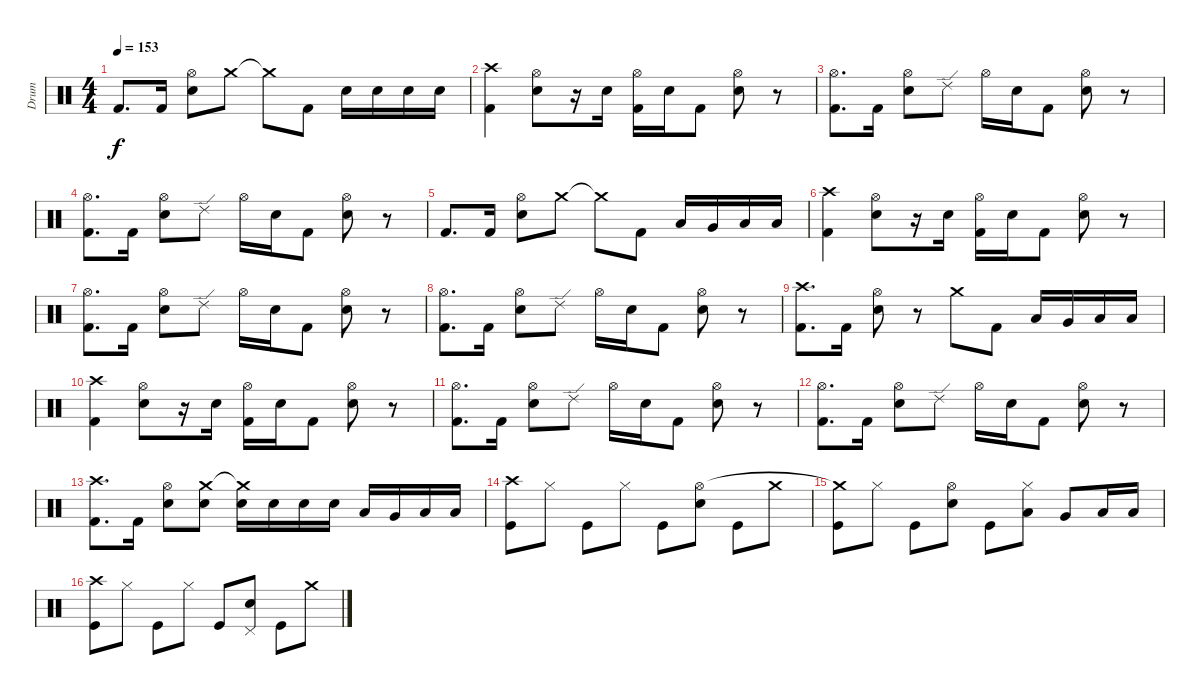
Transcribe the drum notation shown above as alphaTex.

\track ("Drum" "Drum") {instrument percussion}
\staff {score}
\articulation defaults
\ts (4 4)
\tempo 153
\clef neutral
\ks c "Kick (hit) 2".8{d dy f} "Kick (hit) 2".16
("Hi-Hat (open)" "Snare (hit) 2").8 "Crash medium (hit)".8 "Crash medium (hit)"{t}.8 "Kick (hit) 2".8 "Electric Snare (hit)".16 "Electric Snare (hit)".16 "Electric Snare (hit)".16 "Electric Snare (hit)".16 |
("Crash high (hit)" "Kick (hit) 2").4 ("Hi-Hat (open)" "Snare (hit) 2").8 r.16 "Snare (hit) 2".16 ("Hi-Hat (open)" "Kick (hit) 2").16 "Snare (hit) 2".16 "Kick (hit) 2".8 ("Hi-Hat (open)" "Snare (hit) 2").8 r.8 |
("Hi-Hat (open)" "Kick (hit) 2").8{d} "Kick (hit) 2".16 ("Hi-Hat (open)" "Snare (hit) 2").8 "Ride (edge) 2".8 "Hi-Hat (open)".16 "Electric Snare (hit)".16 "Kick (hit) 2".8 ("Hi-Hat (open)" "Snare (hit) 2").8 r.8 |
("Hi-Hat (open)" "Kick (hit) 2").8{d} "Kick (hit) 2".16 ("Hi-Hat (open)" "Snare (hit) 2").8 "Ride (edge) 2".8 "Hi-Hat (open)".16 "Electric Snare (hit)".16 "Kick (hit) 2".8 ("Hi-Hat (open)" "Snare (hit) 2").8 r.8 |
"Kick (hit) 2".8{d} "Kick (hit) 2".16 ("Hi-Hat (open)" "Snare (hit) 2").8 "Crash medium (hit)".8 "Crash medium (hit)"{t}.8 "Kick (hit) 2".8 "Low Tom (hit)".16 "Very Low Tom (hit)".16 "Low Floor Tom (hit)".16 "Low Floor Tom (hit)".16 |
("Crash high (hit)" "Kick (hit) 2").4 ("Hi-Hat (open)" "Snare (hit) 2").8 r.16 "Snare (hit) 2".16 ("Hi-Hat (open)" "Kick (hit) 2").16 "Snare (hit) 2".16 "Kick (hit) 2".8 ("Hi-Hat (open)" "Snare (hit) 2").8 r.8 |
("Hi-Hat (open)" "Kick (hit) 2").8{d} "Kick (hit) 2".16 ("Hi-Hat (open)" "Snare (hit) 2").8 "Ride (edge) 2".8 "Hi-Hat (open)".16 "Electric Snare (hit)".16 "Kick (hit) 2".8 ("Hi-Hat (open)" "Snare (hit) 2").8 r.8 |
("Hi-Hat (open)" "Kick (hit) 2").8{d} "Kick (hit) 2".16 ("Hi-Hat (open)" "Snare (hit) 2").8 "Ride (edge) 2".8 "Hi-Hat (open)".16 "Electric Snare (hit)".16 "Kick (hit) 2".8 ("Hi-Hat (open)" "Snare (hit) 2").8 r.8 |
("Crash high (hit)" "Kick (hit) 2").8{d} "Kick (hit) 2".16 ("Hi-Hat (open)" "Snare (hit) 2").8 r.8 "Crash medium (hit)".8 "Kick (hit) 2".8 "Low Tom (hit)".16 "Very Low Tom (hit)".16 "Low Floor Tom (hit)".16 "Low Floor Tom (hit)".16 |
("Crash high (hit)" "Kick (hit) 2").4 ("Hi-Hat (open)" "Snare (hit) 2").8 r.16 "Snare (hit) 2".16 ("Hi-Hat (open)" "Kick (hit) 2").16 "Snare (hit) 2".16 "Kick (hit) 2".8 ("Hi-Hat (open)" "Snare (hit) 2").8 r.8 |
("Hi-Hat (open)" "Kick (hit) 2").8{d} "Kick (hit) 2".16 ("Hi-Hat (open)" "Snare (hit) 2").8 "Ride (edge) 2".8 "Hi-Hat (open)".16 "Electric Snare (hit)".16 "Kick (hit) 2".8 ("Hi-Hat (open)" "Snare (hit) 2").8 r.8 |
("Hi-Hat (open)" "Kick (hit) 2").8{d} "Kick (hit) 2".16 ("Hi-Hat (open)" "Snare (hit) 2").8 "Ride (edge) 2".8 "Hi-Hat (open)".16 "Electric Snare (hit)".16 "Kick (hit) 2".8 ("Hi-Hat (open)" "Snare (hit) 2").8 r.8 |
("Crash high (hit)" "Kick (hit) 2").8{d} "Kick (hit) 2".16 ("Hi-Hat (open)" "Snare (hit) 2").8 ("Crash medium (hit)" "Electric Snare (hit)").8 ("Crash medium (hit)"{t} "Electric Snare (hit)").16 "Electric Snare (hit)".16 "Electric Snare (hit)".16 "Electric Snare (hit)".16 "Low Tom (hit)".16 "Very Low Tom (hit)".16 "Low Floor Tom (hit)".16 "Low Floor Tom (hit)".16 |
("Kick (hit)" "Crash high (hit)").8 "Hi-Hat (closed)".8 "Kick (hit)".8 "Hi-Hat (closed)".8 "Kick (hit)".8 ("Snare (hit) 2" "Hi-Hat (open)").8 "Kick (hit)".8 "Crash medium (hit)".8 |
("Kick (hit)" "Crash medium (hit)"{t}).8 "Hi-Hat (closed)".8 "Kick (hit)".8 ("Snare (hit) 2" "Hi-Hat (open)").8 "Kick (hit)".8 ("Hi-Hat (closed)" "Low Tom (hit)").8 "Very Low Tom (hit)".8 "Low Floor Tom (hit)".16 "Low Floor Tom (hit)".16 |
("Kick (hit)" "Crash high (hit)").8 "Hi-Hat (closed)".8 "Kick (hit)".8 "Hi-Hat (closed)".8 "Kick (hit)".8 ("Snare (hit) 2" "Pedal Hi-Hat (hit)").8 "Kick (hit)".8 "Crash medium (hit)".8
